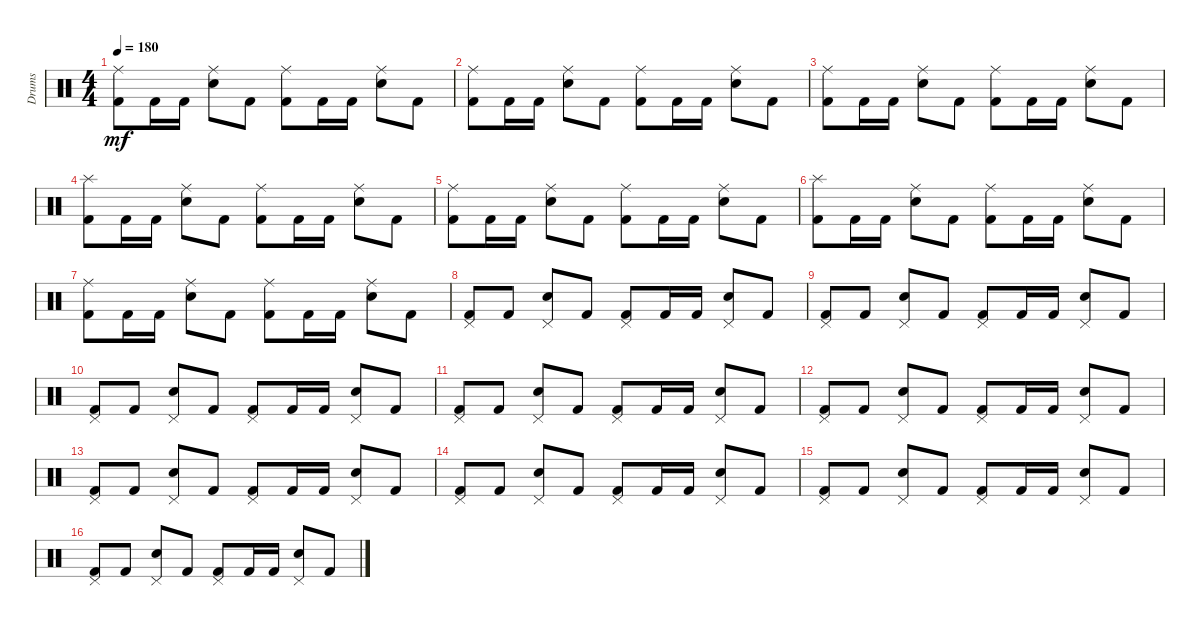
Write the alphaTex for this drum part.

\track ("Drums" "Drums") {instrument percussion}
\staff {score}
\articulation defaults
\ts (4 4)
\tempo 180
\clef neutral
\ks c
("Ride (middle)" "Kick (hit) 2").8{dy mf} "Kick (hit) 2".16 "Kick (hit) 2".16 ("Ride (middle)" "Snare (hit) 2").8 "Kick (hit) 2".8 ("Ride (middle)" "Kick (hit) 2").8 "Kick (hit) 2".16 "Kick (hit) 2".16 ("Ride (middle)" "Snare (hit) 2").8 "Kick (hit) 2".8 |
("Ride (middle)" "Kick (hit) 2").8 "Kick (hit) 2".16 "Kick (hit) 2".16 ("Ride (middle)" "Snare (hit) 2").8 "Kick (hit) 2".8 ("Ride (middle)" "Kick (hit) 2").8 "Kick (hit) 2".16 "Kick (hit) 2".16 ("Ride (middle)" "Snare (hit) 2").8 "Kick (hit) 2".8 |
("Ride (middle)" "Kick (hit) 2").8 "Kick (hit) 2".16 "Kick (hit) 2".16 ("Ride (middle)" "Snare (hit) 2").8 "Kick (hit) 2".8 ("Ride (middle)" "Kick (hit) 2").8 "Kick (hit) 2".16 "Kick (hit) 2".16 ("Ride (middle)" "Snare (hit) 2").8 "Kick (hit) 2".8 |
("Splash (hit)" "Kick (hit) 2").8 "Kick (hit) 2".16 "Kick (hit) 2".16 ("Ride (middle)" "Snare (hit) 2").8 "Kick (hit) 2".8 ("Ride (middle)" "Kick (hit) 2").8 "Kick (hit) 2".16 "Kick (hit) 2".16 ("Ride (middle)" "Snare (hit) 2").8 "Kick (hit) 2".8 |
("Ride (middle)" "Kick (hit) 2").8 "Kick (hit) 2".16 "Kick (hit) 2".16 ("Ride (middle)" "Snare (hit) 2").8 "Kick (hit) 2".8 ("Ride (middle)" "Kick (hit) 2").8 "Kick (hit) 2".16 "Kick (hit) 2".16 ("Ride (middle)" "Snare (hit) 2").8 "Kick (hit) 2".8 |
("Splash (hit)" "Kick (hit) 2").8 "Kick (hit) 2".16 "Kick (hit) 2".16 ("Ride (middle)" "Snare (hit) 2").8 "Kick (hit) 2".8 ("Ride (middle)" "Kick (hit) 2").8 "Kick (hit) 2".16 "Kick (hit) 2".16 ("Ride (middle)" "Snare (hit) 2").8 "Kick (hit) 2".8 |
("Ride (middle)" "Kick (hit) 2").8 "Kick (hit) 2".16 "Kick (hit) 2".16 ("Ride (middle)" "Snare (hit) 2").8 "Kick (hit) 2".8 ("Ride (middle)" "Kick (hit) 2").8 "Kick (hit) 2".16 "Kick (hit) 2".16 ("Ride (middle)" "Snare (hit) 2").8 "Kick (hit) 2".8 |
("Pedal Hi-Hat (hit)" "Kick (hit) 2").8 "Kick (hit) 2".8 ("Pedal Hi-Hat (hit)" "Snare (hit) 2").8 "Kick (hit) 2".8 ("Pedal Hi-Hat (hit)" "Kick (hit) 2").8 "Kick (hit) 2".16 "Kick (hit) 2".16 ("Pedal Hi-Hat (hit)" "Snare (hit) 2").8 "Kick (hit) 2".8 |
("Pedal Hi-Hat (hit)" "Kick (hit) 2").8 "Kick (hit) 2".8 ("Pedal Hi-Hat (hit)" "Snare (hit) 2").8 "Kick (hit) 2".8 ("Pedal Hi-Hat (hit)" "Kick (hit) 2").8 "Kick (hit) 2".16 "Kick (hit) 2".16 ("Pedal Hi-Hat (hit)" "Snare (hit) 2").8 "Kick (hit) 2".8 |
("Pedal Hi-Hat (hit)" "Kick (hit) 2").8 "Kick (hit) 2".8 ("Pedal Hi-Hat (hit)" "Snare (hit) 2").8 "Kick (hit) 2".8 ("Pedal Hi-Hat (hit)" "Kick (hit) 2").8 "Kick (hit) 2".16 "Kick (hit) 2".16 ("Pedal Hi-Hat (hit)" "Snare (hit) 2").8 "Kick (hit) 2".8 |
("Pedal Hi-Hat (hit)" "Kick (hit) 2").8 "Kick (hit) 2".8 ("Pedal Hi-Hat (hit)" "Snare (hit) 2").8 "Kick (hit) 2".8 ("Pedal Hi-Hat (hit)" "Kick (hit) 2").8 "Kick (hit) 2".16 "Kick (hit) 2".16 ("Pedal Hi-Hat (hit)" "Snare (hit) 2").8 "Kick (hit) 2".8 |
("Pedal Hi-Hat (hit)" "Kick (hit) 2").8 "Kick (hit) 2".8 ("Pedal Hi-Hat (hit)" "Snare (hit) 2").8 "Kick (hit) 2".8 ("Pedal Hi-Hat (hit)" "Kick (hit) 2").8 "Kick (hit) 2".16 "Kick (hit) 2".16 ("Pedal Hi-Hat (hit)" "Snare (hit) 2").8 "Kick (hit) 2".8 |
("Pedal Hi-Hat (hit)" "Kick (hit) 2").8 "Kick (hit) 2".8 ("Pedal Hi-Hat (hit)" "Snare (hit) 2").8 "Kick (hit) 2".8 ("Pedal Hi-Hat (hit)" "Kick (hit) 2").8 "Kick (hit) 2".16 "Kick (hit) 2".16 ("Pedal Hi-Hat (hit)" "Snare (hit) 2").8 "Kick (hit) 2".8 |
("Pedal Hi-Hat (hit)" "Kick (hit) 2").8 "Kick (hit) 2".8 ("Pedal Hi-Hat (hit)" "Snare (hit) 2").8 "Kick (hit) 2".8 ("Pedal Hi-Hat (hit)" "Kick (hit) 2").8 "Kick (hit) 2".16 "Kick (hit) 2".16 ("Pedal Hi-Hat (hit)" "Snare (hit) 2").8 "Kick (hit) 2".8 |
("Pedal Hi-Hat (hit)" "Kick (hit) 2").8 "Kick (hit) 2".8 ("Pedal Hi-Hat (hit)" "Snare (hit) 2").8 "Kick (hit) 2".8 ("Pedal Hi-Hat (hit)" "Kick (hit) 2").8 "Kick (hit) 2".16 "Kick (hit) 2".16 ("Pedal Hi-Hat (hit)" "Snare (hit) 2").8 "Kick (hit) 2".8 |
("Pedal Hi-Hat (hit)" "Kick (hit) 2").8 "Kick (hit) 2".8 ("Pedal Hi-Hat (hit)" "Snare (hit) 2").8 "Kick (hit) 2".8 ("Pedal Hi-Hat (hit)" "Kick (hit) 2").8 "Kick (hit) 2".16 "Kick (hit) 2".16 ("Pedal Hi-Hat (hit)" "Snare (hit) 2").8 "Kick (hit) 2".8
